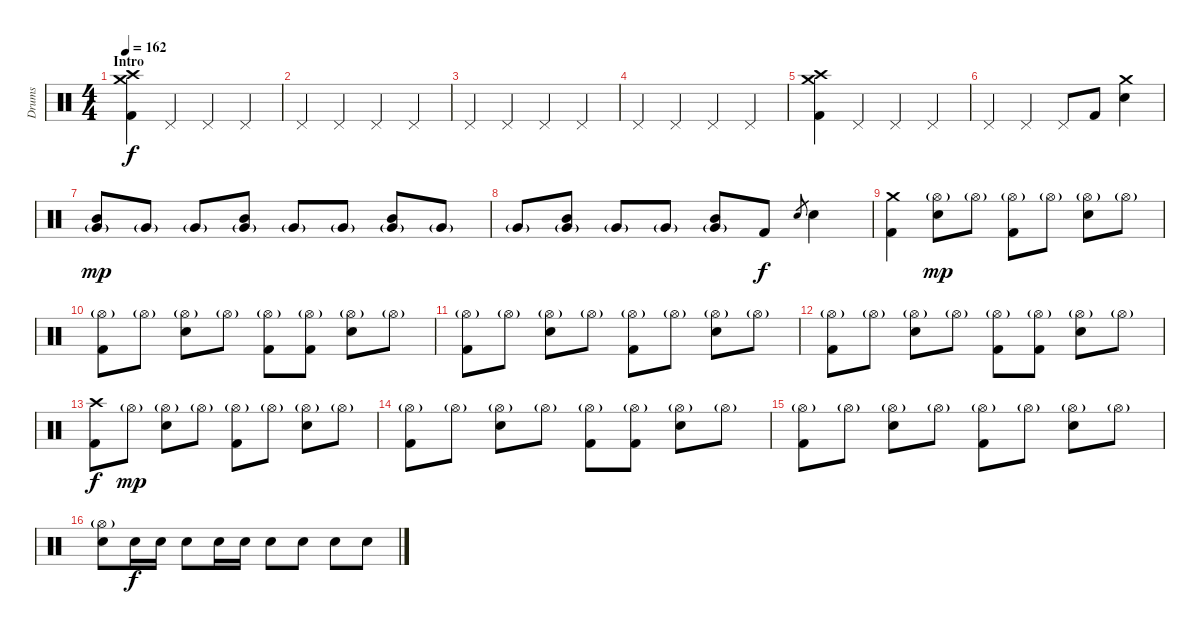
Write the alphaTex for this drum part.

\track ("Drums" "Drums") {instrument percussion}
\staff {score}
\articulation defaults
\ts (4 4)
\section ("" "Intro")
\tempo 162
\clef neutral
\ks c
("Crash medium (hit)" "Crash high (hit)" "Kick (hit) 2").4{dy f} "Pedal Hi-Hat (hit)".4 "Pedal Hi-Hat (hit)".4 "Pedal Hi-Hat (hit)".4 |
"Pedal Hi-Hat (hit)".4 "Pedal Hi-Hat (hit)".4 "Pedal Hi-Hat (hit)".4 "Pedal Hi-Hat (hit)".4 |
"Pedal Hi-Hat (hit)".4 "Pedal Hi-Hat (hit)".4 "Pedal Hi-Hat (hit)".4 "Pedal Hi-Hat (hit)".4 |
"Pedal Hi-Hat (hit)".4 "Pedal Hi-Hat (hit)".4 "Pedal Hi-Hat (hit)".4 "Pedal Hi-Hat (hit)".4 |
("Crash medium (hit)" "Crash high (hit)" "Kick (hit) 2").4 "Pedal Hi-Hat (hit)".4 "Pedal Hi-Hat (hit)".4 "Pedal Hi-Hat (hit)".4 |
"Pedal Hi-Hat (hit)".4 "Pedal Hi-Hat (hit)".4 "Pedal Hi-Hat (hit)".8 "Kick (hit) 2".8 ("Crash medium (hit)" "Snare (hit) 2").4 |
("Mid Tom (hit)" "Very Low Tom (hit)"{g}).8{dy mp} "Very Low Tom (hit)"{g}.8 "Very Low Tom (hit)"{g}.8 ("Mid Tom (hit)" "Very Low Tom (hit)"{g}).8 "Very Low Tom (hit)"{g}.8 "Very Low Tom (hit)"{g}.8 ("Mid Tom (hit)" "Very Low Tom (hit)"{g}).8 "Very Low Tom (hit)"{g}.8 |
"Very Low Tom (hit)"{g}.8 ("Mid Tom (hit)" "Very Low Tom (hit)"{g}).8 "Very Low Tom (hit)"{g}.8 "Very Low Tom (hit)"{g}.8 ("Mid Tom (hit)" "Very Low Tom (hit)"{g}).8 "Kick (hit) 2".8{dy f} "Snare (hit) 2".8{gr} "Snare (hit) 2".4 |
("Crash medium (hit)" "Kick (hit) 2").4 ("Hi-Hat (open)"{g} "Snare (hit) 2").8{dy mp} "Hi-Hat (open)"{g}.8 ("Hi-Hat (open)"{g} "Kick (hit) 2").8 "Hi-Hat (open)"{g}.8 ("Hi-Hat (open)"{g} "Snare (hit) 2").8 "Hi-Hat (open)"{g}.8 |
("Hi-Hat (open)"{g} "Kick (hit) 2").8 "Hi-Hat (open)"{g}.8 ("Hi-Hat (open)"{g} "Snare (hit) 2").8 "Hi-Hat (open)"{g}.8 ("Hi-Hat (open)"{g} "Kick (hit) 2").8 ("Hi-Hat (open)"{g} "Kick (hit) 2").8 ("Hi-Hat (open)"{g} "Snare (hit) 2").8 "Hi-Hat (open)"{g}.8 |
("Hi-Hat (open)"{g} "Kick (hit) 2").8 "Hi-Hat (open)"{g}.8 ("Hi-Hat (open)"{g} "Snare (hit) 2").8 "Hi-Hat (open)"{g}.8 ("Hi-Hat (open)"{g} "Kick (hit) 2").8 "Hi-Hat (open)"{g}.8 ("Hi-Hat (open)"{g} "Snare (hit) 2").8 "Hi-Hat (open)"{g}.8 |
("Hi-Hat (open)"{g} "Kick (hit) 2").8 "Hi-Hat (open)"{g}.8 ("Hi-Hat (open)"{g} "Snare (hit) 2").8 "Hi-Hat (open)"{g}.8 ("Hi-Hat (open)"{g} "Kick (hit) 2").8 ("Hi-Hat (open)"{g} "Kick (hit) 2").8 ("Hi-Hat (open)"{g} "Snare (hit) 2").8 "Hi-Hat (open)"{g}.8 |
("Crash high (hit)" "Kick (hit) 2").8{dy f} "Hi-Hat (open)"{g}.8{dy mp} ("Hi-Hat (open)"{g} "Snare (hit) 2").8 "Hi-Hat (open)"{g}.8 ("Hi-Hat (open)"{g} "Kick (hit) 2").8 "Hi-Hat (open)"{g}.8 ("Hi-Hat (open)"{g} "Snare (hit) 2").8 "Hi-Hat (open)"{g}.8 |
("Hi-Hat (open)"{g} "Kick (hit) 2").8 "Hi-Hat (open)"{g}.8 ("Hi-Hat (open)"{g} "Snare (hit) 2").8 "Hi-Hat (open)"{g}.8 ("Hi-Hat (open)"{g} "Kick (hit) 2").8 ("Hi-Hat (open)"{g} "Kick (hit) 2").8 ("Hi-Hat (open)"{g} "Snare (hit) 2").8 "Hi-Hat (open)"{g}.8 |
("Hi-Hat (open)"{g} "Kick (hit) 2").8 "Hi-Hat (open)"{g}.8 ("Hi-Hat (open)"{g} "Snare (hit) 2").8 "Hi-Hat (open)"{g}.8 ("Hi-Hat (open)"{g} "Kick (hit) 2").8 "Hi-Hat (open)"{g}.8 ("Hi-Hat (open)"{g} "Snare (hit) 2").8 "Hi-Hat (open)"{g}.8 |
("Hi-Hat (open)"{g} "Snare (hit) 2").8 "Snare (hit) 2".16{dy f} "Snare (hit) 2".16 "Snare (hit) 2".8 "Snare (hit) 2".16 "Snare (hit) 2".16 "Snare (hit) 2".8 "Snare (hit) 2".8 "Snare (hit) 2".8 "Snare (hit) 2".8
